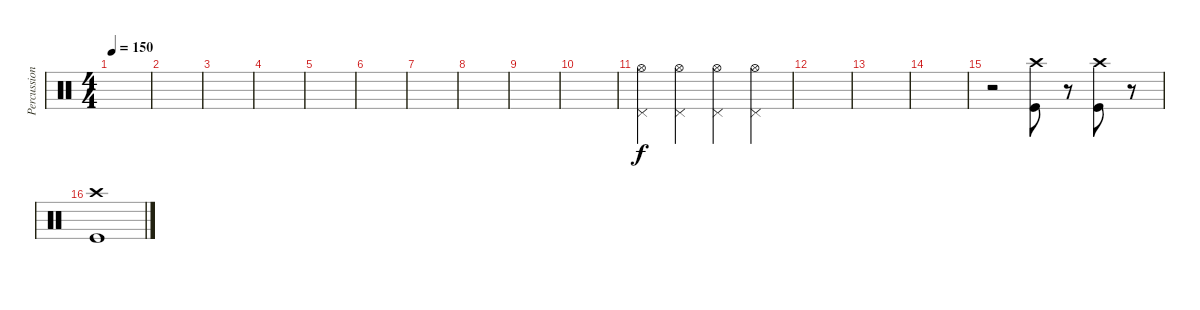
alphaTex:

\track ("Percussion" "Percussion") {instrument percussion}
\staff {score}
\articulation defaults
\ts (4 4)
\tempo 150
\clef neutral
\ks c
|
|
|
|
|
|
|
|
|
|
("Pedal Hi-Hat (hit)" "Hi-Hat (open)").4 ("Pedal Hi-Hat (hit)" "Hi-Hat (open)").4 ("Pedal Hi-Hat (hit)" "Hi-Hat (open)").4 ("Pedal Hi-Hat (hit)" "Hi-Hat (open)").4 |
|
|
|
r.2 ("Crash high (hit)" "Kick (hit)").8 r.8 ("Crash high (hit)" "Kick (hit)").8 r.8 |
("Crash high (hit)" "Kick (hit)").1
